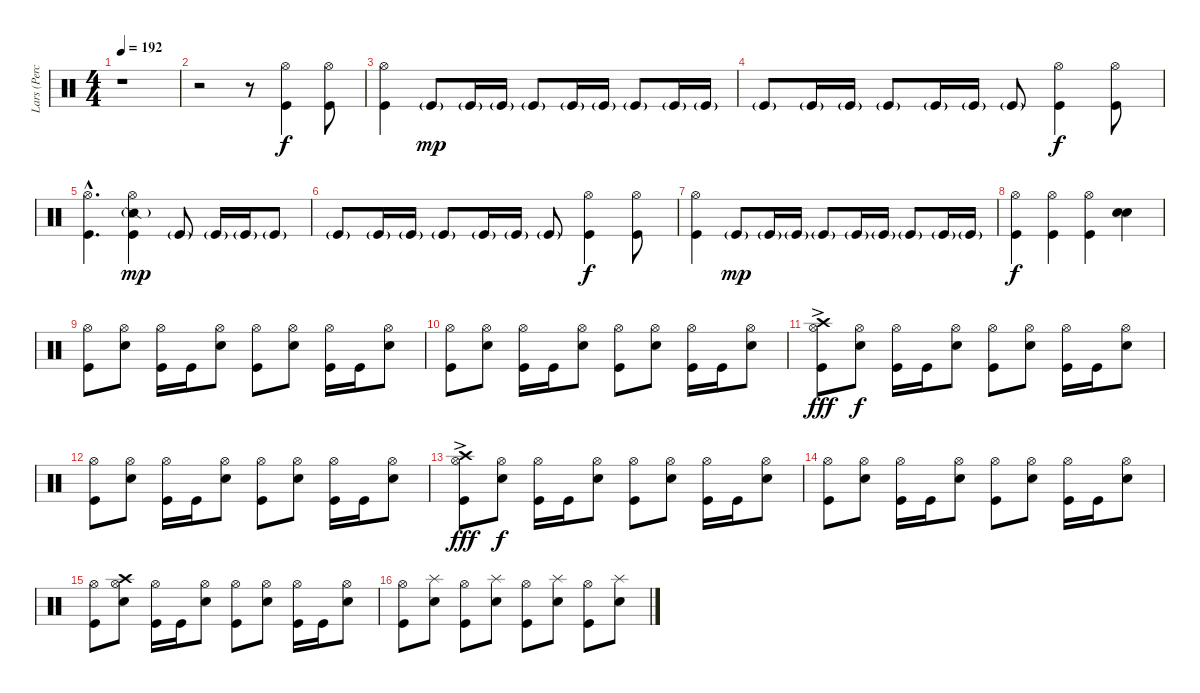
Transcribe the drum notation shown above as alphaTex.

\track ("Lars (Percussion)" "Lars (Perc") {instrument percussion}
\staff {score}
\articulation defaults
\ts (4 4)
\tempo 192
\clef neutral
\ks c
r.1{dy f} |
r.2 r.8 ("Hi-Hat (open)" "Kick (hit)").4 ("Hi-Hat (open)" "Kick (hit)").8 |
("Hi-Hat (open)" "Kick (hit)").4 "Kick (hit)"{g}.8{dy mp} "Kick (hit)"{g}.16 "Kick (hit)"{g}.16 "Kick (hit)"{g}.8 "Kick (hit)"{g}.16 "Kick (hit)"{g}.16 "Kick (hit)"{g}.8 "Kick (hit)"{g}.16 "Kick (hit)"{g}.16 |
"Kick (hit)"{g}.8 "Kick (hit)"{g}.16 "Kick (hit)"{g}.16 "Kick (hit)"{g}.8 "Kick (hit)"{g}.16 "Kick (hit)"{g}.16 "Kick (hit)"{g}.8 ("Hi-Hat (open)" "Kick (hit)").4{dy f} ("Hi-Hat (open)" "Kick (hit)").8 |
("Hi-Hat (open)"{hac} "Kick (hit)"{hac}).4{d} ("Hi-Hat (open)" "Snare (side stick) 2"{g} "Kick (hit)").4{dy mp} "Kick (hit)"{g}.8 "Kick (hit)"{g}.16 "Kick (hit)"{g}.16 "Kick (hit)"{g}.8 |
"Kick (hit)"{g}.8 "Kick (hit)"{g}.16 "Kick (hit)"{g}.16 "Kick (hit)"{g}.8 "Kick (hit)"{g}.16 "Kick (hit)"{g}.16 "Kick (hit)"{g}.8 ("Hi-Hat (open)" "Kick (hit)").4{dy f} ("Hi-Hat (open)" "Kick (hit)").8 |
("Hi-Hat (open)" "Kick (hit)").4 "Kick (hit)"{g}.8{dy mp} "Kick (hit)"{g}.16 "Kick (hit)"{g}.16 "Kick (hit)"{g}.8 "Kick (hit)"{g}.16 "Kick (hit)"{g}.16 "Kick (hit)"{g}.8 "Kick (hit)"{g}.16 "Kick (hit)"{g}.16 |
("Hi-Hat (open)" "Kick (hit)").4{dy f} ("Hi-Hat (open)" "Kick (hit)").4 ("Hi-Hat (open)" "Kick (hit)").4 ("Snare (hit) 2" "Snare (hit) 2").4{bd 240} |
("Hi-Hat (open)" "Kick (hit)").8 ("Hi-Hat (open)" "Snare (hit) 2").8 ("Hi-Hat (open)" "Kick (hit)").16 "Kick (hit)".16 ("Hi-Hat (open)" "Snare (hit) 2").8 ("Hi-Hat (open)" "Kick (hit)").8 ("Hi-Hat (open)" "Snare (hit) 2").8 ("Hi-Hat (open)" "Kick (hit)").16 "Kick (hit)".16 ("Hi-Hat (open)" "Snare (hit) 2").8 |
("Hi-Hat (open)" "Kick (hit)").8 ("Hi-Hat (open)" "Snare (hit) 2").8 ("Hi-Hat (open)" "Kick (hit)").16 "Kick (hit)".16 ("Hi-Hat (open)" "Snare (hit) 2").8 ("Hi-Hat (open)" "Kick (hit)").8 ("Hi-Hat (open)" "Snare (hit) 2").8 ("Hi-Hat (open)" "Kick (hit)").16 "Kick (hit)".16 ("Hi-Hat (open)" "Snare (hit) 2").8 |
("Hi-Hat (open)" "Crash high (hit)" "Kick (hit)"{ac}).8{dy fff} ("Hi-Hat (open)" "Snare (hit) 2").8{dy f} ("Hi-Hat (open)" "Kick (hit)").16 "Kick (hit)".16 ("Hi-Hat (open)" "Snare (hit) 2").8 ("Hi-Hat (open)" "Kick (hit)").8 ("Hi-Hat (open)" "Snare (hit) 2").8 ("Hi-Hat (open)" "Kick (hit)").16 "Kick (hit)".16 ("Hi-Hat (open)" "Snare (hit) 2").8 |
("Hi-Hat (open)" "Kick (hit)").8 ("Hi-Hat (open)" "Snare (hit) 2").8 ("Hi-Hat (open)" "Kick (hit)").16 "Kick (hit)".16 ("Hi-Hat (open)" "Snare (hit) 2").8 ("Hi-Hat (open)" "Kick (hit)").8 ("Hi-Hat (open)" "Snare (hit) 2").8 ("Hi-Hat (open)" "Kick (hit)").16 "Kick (hit)".16 ("Hi-Hat (open)" "Snare (hit) 2").8 |
("Hi-Hat (open)" "Crash high (hit)" "Kick (hit)"{ac}).8{dy fff} ("Hi-Hat (open)" "Snare (hit) 2").8{dy f} ("Hi-Hat (open)" "Kick (hit)").16 "Kick (hit)".16 ("Hi-Hat (open)" "Snare (hit) 2").8 ("Hi-Hat (open)" "Kick (hit)").8 ("Hi-Hat (open)" "Snare (hit) 2").8 ("Hi-Hat (open)" "Kick (hit)").16 "Kick (hit)".16 ("Hi-Hat (open)" "Snare (hit) 2").8 |
("Hi-Hat (open)" "Kick (hit)").8 ("Hi-Hat (open)" "Snare (hit) 2").8 ("Hi-Hat (open)" "Kick (hit)").16 "Kick (hit)".16 ("Hi-Hat (open)" "Snare (hit) 2").8 ("Hi-Hat (open)" "Kick (hit)").8 ("Hi-Hat (open)" "Snare (hit) 2").8 ("Hi-Hat (open)" "Kick (hit)").16 "Kick (hit)".16 ("Hi-Hat (open)" "Snare (hit) 2").8 |
("Hi-Hat (open)" "Kick (hit)").8 ("Hi-Hat (open)" "Crash high (hit)" "Snare (hit) 2").8 ("Hi-Hat (open)" "Kick (hit)").16 "Kick (hit)".16 ("Hi-Hat (open)" "Snare (hit) 2").8 ("Hi-Hat (open)" "Kick (hit)").8 ("Hi-Hat (open)" "Snare (hit) 2").8 ("Hi-Hat (open)" "Kick (hit)").16 "Kick (hit)".16 ("Hi-Hat (open)" "Snare (hit) 2").8 |
("Hi-Hat (open)" "Kick (hit)").8 ("Splash (hit)" "Snare (hit) 2").8 ("Hi-Hat (open)" "Kick (hit)").8 ("Splash (hit)" "Snare (hit) 2").8 ("Hi-Hat (open)" "Kick (hit)").8 ("Splash (hit)" "Snare (hit) 2").8 ("Hi-Hat (open)" "Kick (hit)").8 ("Splash (hit)" "Snare (hit) 2").8
